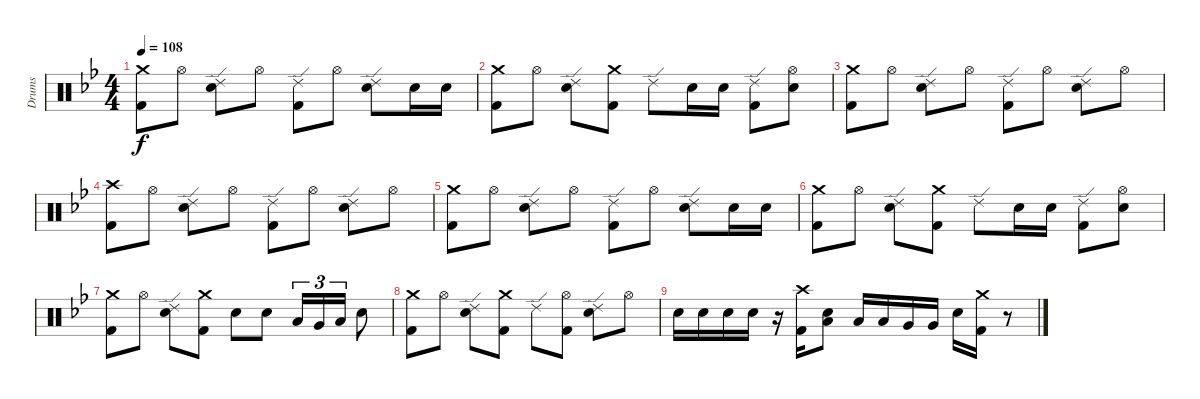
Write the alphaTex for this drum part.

\track ("Drums" "Drums") {instrument percussion}
\staff {score}
\articulation defaults
\ts (4 4)
\tempo 108
\clef neutral
\ks gminor
("Crash medium (hit)" "Kick (hit) 2").8{dy f} "Hi-Hat (open)".8 ("Ride (edge) 2" "Snare (hit) 2").8 "Hi-Hat (open)".8 ("Ride (edge) 2" "Kick (hit) 2").8 "Hi-Hat (open)".8 ("Ride (edge) 2" "Snare (hit) 2").8 "Snare (hit) 2".16 "Snare (hit) 2".16 |
("Crash medium (hit)" "Kick (hit) 2").8 "Hi-Hat (open)".8 ("Ride (edge) 2" "Snare (hit) 2").8 ("Crash medium (hit)" "Kick (hit) 2").8 "Ride (edge) 2".8 "Snare (hit) 2".16 "Snare (hit) 2".16 ("Ride (edge) 2" "Kick (hit) 2").8 ("Hi-Hat (open)" "Snare (hit) 2").8 |
("Crash medium (hit)" "Kick (hit) 2").8 "Hi-Hat (open)".8 ("Ride (edge) 2" "Snare (hit) 2").8 "Hi-Hat (open)".8 ("Ride (edge) 2" "Kick (hit) 2").8 "Hi-Hat (open)".8 ("Ride (edge) 2" "Snare (hit) 2").8 "Hi-Hat (open)".8 |
("Crash high (hit)" "Kick (hit) 2").8 "Hi-Hat (open)".8 ("Ride (edge) 2" "Snare (hit) 2").8 "Hi-Hat (open)".8 ("Ride (edge) 2" "Kick (hit) 2").8 "Hi-Hat (open)".8 ("Ride (edge) 2" "Snare (hit) 2").8 "Hi-Hat (open)".8 |
("Crash medium (hit)" "Kick (hit) 2").8 "Hi-Hat (open)".8 ("Ride (edge) 2" "Snare (hit) 2").8 "Hi-Hat (open)".8 ("Ride (edge) 2" "Kick (hit) 2").8 "Hi-Hat (open)".8 ("Ride (edge) 2" "Snare (hit) 2").8 "Snare (hit) 2".16 "Snare (hit) 2".16 |
("Crash medium (hit)" "Kick (hit) 2").8 "Hi-Hat (open)".8 ("Ride (edge) 2" "Snare (hit) 2").8 ("Crash medium (hit)" "Kick (hit) 2").8 "Ride (edge) 2".8 "Snare (hit) 2".16 "Snare (hit) 2".16 ("Ride (edge) 2" "Kick (hit) 2").8 ("Hi-Hat (open)" "Snare (hit) 2").8 |
("Crash medium (hit)" "Kick (hit) 2").8 "Hi-Hat (open)".8 ("Ride (edge) 2" "Snare (hit) 2").8 ("Crash medium (hit)" "Kick (hit) 2").8 "Snare (hit) 2".8 "Snare (hit) 2".8 "Low Tom (hit)".16{tu (3 2)} "Very Low Tom (hit)".16{tu (3 2)} "Low Floor Tom (hit)".16{tu (3 2)} "Snare (hit) 2".8 |
("Crash medium (hit)" "Kick (hit) 2").8 "Hi-Hat (open)".8 ("Ride (edge) 2" "Snare (hit) 2").8 ("Crash medium (hit)" "Kick (hit) 2").8 "Ride (edge) 2".8 ("Hi-Hat (open)" "Kick (hit) 2").8 ("Ride (edge) 2" "Snare (hit) 2").8 "Hi-Hat (open)".8 |
"Snare (hit) 2".16 "Snare (hit) 2".16 "Snare (hit) 2".16 "Snare (hit) 2".16 r.16 ("Crash high (hit)" "Kick (hit) 2").16 ("Snare (hit) 2" "Low Floor Tom (hit)").8 "Low Tom (hit)".16 "Low Tom (hit)".16 "Very Low Tom (hit)".16 "Very Low Tom (hit)".16 "Snare (hit) 2".16 ("Crash medium (hit)" "Kick (hit) 2").16 r.8
